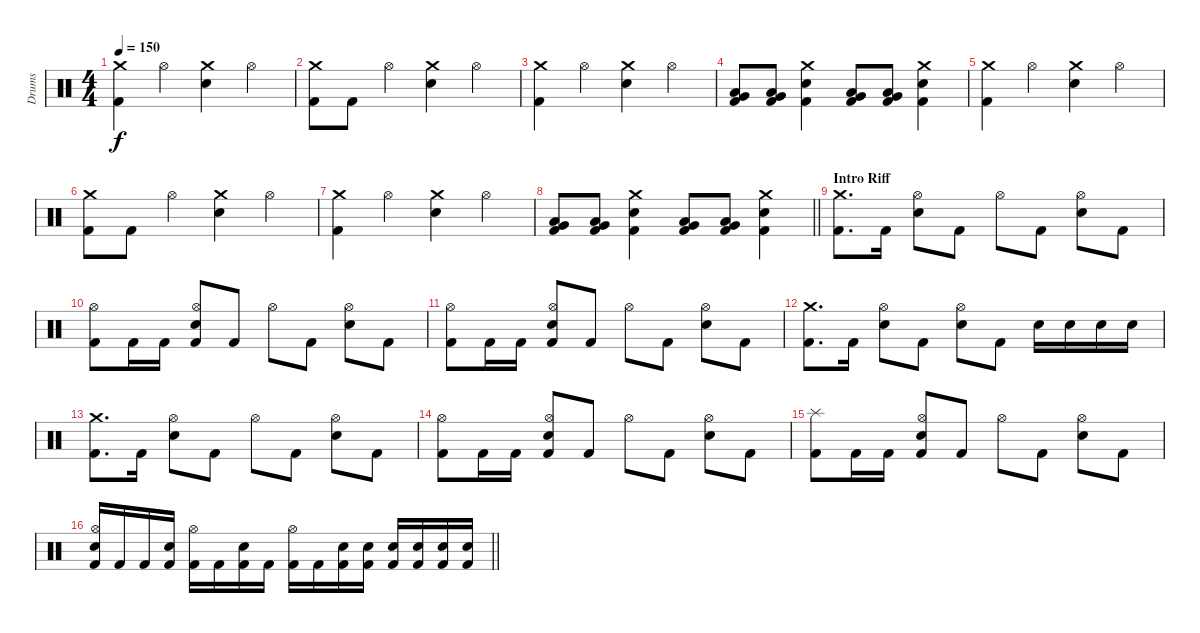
\track ("Drums" "Drums") {instrument percussion}
\staff {score}
\articulation defaults
\ts (4 4)
\tempo 150
\clef neutral
\ks c
("Crash medium (hit)" "Kick (hit) 2").4{dy f} "Hi-Hat (open)".4 ("Crash medium (hit)" "Snare (hit) 2").4 "Hi-Hat (open)".4 |
("Crash medium (hit)" "Kick (hit) 2").8 "Kick (hit) 2".8 "Hi-Hat (open)".4 ("Crash medium (hit)" "Snare (hit) 2").4 "Hi-Hat (open)".4 |
("Crash medium (hit)" "Kick (hit) 2").4 "Hi-Hat (open)".4 ("Crash medium (hit)" "Snare (hit) 2").4 "Hi-Hat (open)".4 |
("Low Tom (hit)" "Very Low Tom (hit)" "Kick (hit) 2").8 ("Low Tom (hit)" "Very Low Tom (hit)" "Kick (hit) 2").8 ("Crash medium (hit)" "Snare (hit) 2" "Kick (hit) 2").4 ("Very Low Tom (hit)" "Low Floor Tom (hit)" "Kick (hit) 2").8 ("Very Low Tom (hit)" "Low Floor Tom (hit)" "Kick (hit) 2").8 ("Crash medium (hit)" "Snare (hit) 2" "Kick (hit) 2").4 |
("Crash medium (hit)" "Kick (hit) 2").4 "Hi-Hat (open)".4 ("Crash medium (hit)" "Snare (hit) 2").4 "Hi-Hat (open)".4 |
("Crash medium (hit)" "Kick (hit) 2").8 "Kick (hit) 2".8 "Hi-Hat (open)".4 ("Crash medium (hit)" "Snare (hit) 2").4 "Hi-Hat (open)".4 |
("Crash medium (hit)" "Kick (hit) 2").4 "Hi-Hat (open)".4 ("Crash medium (hit)" "Snare (hit) 2").4 "Hi-Hat (open)".4 |
\barLineRight lightlight
("Low Tom (hit)" "Very Low Tom (hit)" "Kick (hit) 2").8 ("Low Tom (hit)" "Very Low Tom (hit)" "Kick (hit) 2").8 ("Crash medium (hit)" "Snare (hit) 2" "Kick (hit) 2").4 ("Very Low Tom (hit)" "Low Floor Tom (hit)" "Kick (hit) 2").8 ("Very Low Tom (hit)" "Low Floor Tom (hit)" "Kick (hit) 2").8 ("Crash medium (hit)" "Snare (hit) 2" "Kick (hit) 2").4 |
\section ("" "Intro Riff")
("Crash medium (hit)" "Kick (hit) 2").8{d} "Kick (hit) 2".16 ("Hi-Hat (open)" "Snare (hit) 2").8 "Kick (hit) 2".8 "Hi-Hat (open)".8 "Kick (hit) 2".8 ("Hi-Hat (open)" "Snare (hit) 2").8 "Kick (hit) 2".8 |
("Hi-Hat (open)" "Kick (hit) 2").8 "Kick (hit) 2".16 "Kick (hit) 2".16 ("Hi-Hat (open)" "Snare (hit) 2" "Kick (hit) 2").8 "Kick (hit) 2".8 "Hi-Hat (open)".8 "Kick (hit) 2".8 ("Hi-Hat (open)" "Snare (hit) 2").8 "Kick (hit) 2".8 |
("Hi-Hat (open)" "Kick (hit) 2").8 "Kick (hit) 2".16 "Kick (hit) 2".16 ("Hi-Hat (open)" "Snare (hit) 2" "Kick (hit) 2").8 "Kick (hit) 2".8 "Hi-Hat (open)".8 "Kick (hit) 2".8 ("Hi-Hat (open)" "Snare (hit) 2").8 "Kick (hit) 2".8 |
("Crash medium (hit)" "Kick (hit) 2").8{d} "Kick (hit) 2".16 ("Hi-Hat (open)" "Snare (hit) 2").8 "Kick (hit) 2".8 ("Hi-Hat (open)" "Snare (hit) 2").8 "Kick (hit) 2".8 "Snare (hit) 2".16 "Snare (hit) 2".16 "Snare (hit) 2".16 "Snare (hit) 2".16 |
("Crash medium (hit)" "Kick (hit) 2").8{d} "Kick (hit) 2".16 ("Hi-Hat (open)" "Snare (hit) 2").8 "Kick (hit) 2".8 "Hi-Hat (open)".8 "Kick (hit) 2".8 ("Hi-Hat (open)" "Snare (hit) 2").8 "Kick (hit) 2".8 |
("Hi-Hat (open)" "Kick (hit) 2").8 "Kick (hit) 2".16 "Kick (hit) 2".16 ("Hi-Hat (open)" "Snare (hit) 2" "Kick (hit) 2").8 "Kick (hit) 2".8 "Hi-Hat (open)".8 "Kick (hit) 2".8 ("Hi-Hat (open)" "Snare (hit) 2").8 "Kick (hit) 2".8 |
("Splash (hit)" "Kick (hit) 2").8 "Kick (hit) 2".16 "Kick (hit) 2".16 ("Hi-Hat (open)" "Snare (hit) 2" "Kick (hit) 2").8 "Kick (hit) 2".8 "Hi-Hat (open)".8 "Kick (hit) 2".8 ("Hi-Hat (open)" "Snare (hit) 2").8 "Kick (hit) 2".8 |
\barLineRight lightlight
("Hi-Hat (open)" "Snare (hit) 2" "Kick (hit) 2").16 "Kick (hit) 2".16 "Kick (hit) 2".16 ("Snare (hit) 2" "Kick (hit) 2").16 ("Hi-Hat (open)" "Kick (hit) 2").16 "Kick (hit) 2".16 ("Snare (hit) 2" "Kick (hit) 2").16 "Kick (hit) 2".16 ("Hi-Hat (open)" "Kick (hit) 2").16 "Kick (hit) 2".16 ("Snare (hit) 2" "Kick (hit) 2").16 ("Snare (hit) 2" "Kick (hit) 2").16 ("Snare (hit) 2" "Kick (hit) 2").16 ("Snare (hit) 2" "Kick (hit) 2").16 ("Snare (hit) 2" "Kick (hit) 2").16 ("Snare (hit) 2" "Kick (hit) 2").16
